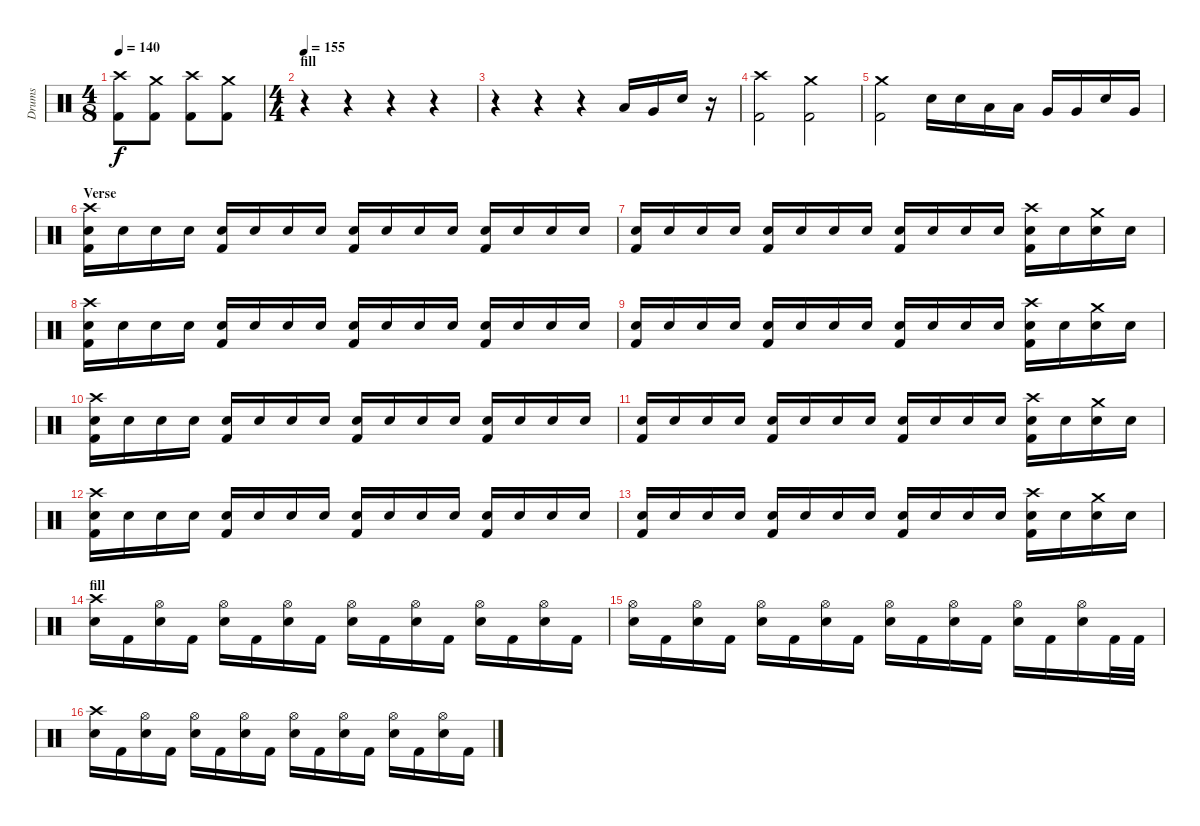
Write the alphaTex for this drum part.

\track ("Drums" "Drums") {instrument percussion}
\staff {score}
\articulation defaults
\ts (4 8)
\tempo 140
\clef neutral
\ks c
("Crash high (hit)" "Kick (hit) 2").8{dy f} ("Crash medium (hit)" "Kick (hit) 2").8 ("Crash high (hit)" "Kick (hit) 2").8 ("Crash medium (hit)" "Kick (hit) 2").8 |
\ts (4 4)
\section ("" "fill")
\tempo 155
r.4 r.4 r.4 r.4 |
r.4 r.4 r.4 "Low Tom (hit)".16 "Very Low Tom (hit)".16 "Snare (hit) 2".16 r.16 |
("Crash high (hit)" "Kick (hit) 2").2 ("Crash medium (hit)" "Kick (hit) 2").2 |
("Crash medium (hit)" "Kick (hit) 2").2 "Snare (hit) 2".16 "Snare (hit) 2".16 "Low Tom (hit)".16 "Low Tom (hit)".16 "Very Low Tom (hit)".16 "Very Low Tom (hit)".16 "Snare (hit) 2".16 "Very Low Tom (hit)".16 |
\section ("" "Verse")
("Crash high (hit)" "Snare (hit) 2" "Kick (hit) 2").16 "Snare (hit) 2".16 "Snare (hit) 2".16 "Snare (hit) 2".16 ("Snare (hit) 2" "Kick (hit) 2").16 "Snare (hit) 2".16 "Snare (hit) 2".16 "Snare (hit) 2".16 ("Snare (hit) 2" "Kick (hit) 2").16 "Snare (hit) 2".16 "Snare (hit) 2".16 "Snare (hit) 2".16 ("Snare (hit) 2" "Kick (hit) 2").16 "Snare (hit) 2".16 "Snare (hit) 2".16 "Snare (hit) 2".16 |
("Snare (hit) 2" "Kick (hit) 2").16 "Snare (hit) 2".16 "Snare (hit) 2".16 "Snare (hit) 2".16 ("Snare (hit) 2" "Kick (hit) 2").16 "Snare (hit) 2".16 "Snare (hit) 2".16 "Snare (hit) 2".16 ("Snare (hit) 2" "Kick (hit) 2").16 "Snare (hit) 2".16 "Snare (hit) 2".16 "Snare (hit) 2".16 ("Crash high (hit)" "Snare (hit) 2" "Kick (hit) 2").16 "Snare (hit) 2".16 ("Crash medium (hit)" "Snare (hit) 2").16 "Snare (hit) 2".16 |
("Crash high (hit)" "Snare (hit) 2" "Kick (hit) 2").16 "Snare (hit) 2".16 "Snare (hit) 2".16 "Snare (hit) 2".16 ("Snare (hit) 2" "Kick (hit) 2").16 "Snare (hit) 2".16 "Snare (hit) 2".16 "Snare (hit) 2".16 ("Snare (hit) 2" "Kick (hit) 2").16 "Snare (hit) 2".16 "Snare (hit) 2".16 "Snare (hit) 2".16 ("Snare (hit) 2" "Kick (hit) 2").16 "Snare (hit) 2".16 "Snare (hit) 2".16 "Snare (hit) 2".16 |
("Snare (hit) 2" "Kick (hit) 2").16 "Snare (hit) 2".16 "Snare (hit) 2".16 "Snare (hit) 2".16 ("Snare (hit) 2" "Kick (hit) 2").16 "Snare (hit) 2".16 "Snare (hit) 2".16 "Snare (hit) 2".16 ("Snare (hit) 2" "Kick (hit) 2").16 "Snare (hit) 2".16 "Snare (hit) 2".16 "Snare (hit) 2".16 ("Crash high (hit)" "Snare (hit) 2" "Kick (hit) 2").16 "Snare (hit) 2".16 ("Crash medium (hit)" "Snare (hit) 2").16 "Snare (hit) 2".16 |
("Crash high (hit)" "Snare (hit) 2" "Kick (hit) 2").16 "Snare (hit) 2".16 "Snare (hit) 2".16 "Snare (hit) 2".16 ("Snare (hit) 2" "Kick (hit) 2").16 "Snare (hit) 2".16 "Snare (hit) 2".16 "Snare (hit) 2".16 ("Snare (hit) 2" "Kick (hit) 2").16 "Snare (hit) 2".16 "Snare (hit) 2".16 "Snare (hit) 2".16 ("Snare (hit) 2" "Kick (hit) 2").16 "Snare (hit) 2".16 "Snare (hit) 2".16 "Snare (hit) 2".16 |
("Snare (hit) 2" "Kick (hit) 2").16 "Snare (hit) 2".16 "Snare (hit) 2".16 "Snare (hit) 2".16 ("Snare (hit) 2" "Kick (hit) 2").16 "Snare (hit) 2".16 "Snare (hit) 2".16 "Snare (hit) 2".16 ("Snare (hit) 2" "Kick (hit) 2").16 "Snare (hit) 2".16 "Snare (hit) 2".16 "Snare (hit) 2".16 ("Crash high (hit)" "Snare (hit) 2" "Kick (hit) 2").16 "Snare (hit) 2".16 ("Crash medium (hit)" "Snare (hit) 2").16 "Snare (hit) 2".16 |
("Crash high (hit)" "Snare (hit) 2" "Kick (hit) 2").16 "Snare (hit) 2".16 "Snare (hit) 2".16 "Snare (hit) 2".16 ("Snare (hit) 2" "Kick (hit) 2").16 "Snare (hit) 2".16 "Snare (hit) 2".16 "Snare (hit) 2".16 ("Snare (hit) 2" "Kick (hit) 2").16 "Snare (hit) 2".16 "Snare (hit) 2".16 "Snare (hit) 2".16 ("Snare (hit) 2" "Kick (hit) 2").16 "Snare (hit) 2".16 "Snare (hit) 2".16 "Snare (hit) 2".16 |
("Snare (hit) 2" "Kick (hit) 2").16 "Snare (hit) 2".16 "Snare (hit) 2".16 "Snare (hit) 2".16 ("Snare (hit) 2" "Kick (hit) 2").16 "Snare (hit) 2".16 "Snare (hit) 2".16 "Snare (hit) 2".16 ("Snare (hit) 2" "Kick (hit) 2").16 "Snare (hit) 2".16 "Snare (hit) 2".16 "Snare (hit) 2".16 ("Crash high (hit)" "Snare (hit) 2" "Kick (hit) 2").16 "Snare (hit) 2".16 ("Crash medium (hit)" "Snare (hit) 2").16 "Snare (hit) 2".16 |
\section ("" "fill")
("Crash high (hit)" "Snare (hit) 2").16 "Kick (hit) 2".16 ("Hi-Hat (open)" "Snare (hit) 2").16 "Kick (hit) 2".16 ("Hi-Hat (open)" "Snare (hit) 2").16 "Kick (hit) 2".16 ("Hi-Hat (open)" "Snare (hit) 2").16 "Kick (hit) 2".16 ("Hi-Hat (open)" "Snare (hit) 2").16 "Kick (hit) 2".16 ("Hi-Hat (open)" "Snare (hit) 2").16 "Kick (hit) 2".16 ("Hi-Hat (open)" "Snare (hit) 2").16 "Kick (hit) 2".16 ("Hi-Hat (open)" "Snare (hit) 2").16 "Kick (hit) 2".16 |
("Hi-Hat (open)" "Snare (hit) 2").16 "Kick (hit) 2".16 ("Hi-Hat (open)" "Snare (hit) 2").16 "Kick (hit) 2".16 ("Hi-Hat (open)" "Snare (hit) 2").16 "Kick (hit) 2".16 ("Hi-Hat (open)" "Snare (hit) 2").16 "Kick (hit) 2".16 ("Hi-Hat (open)" "Snare (hit) 2").16 "Kick (hit) 2".16 ("Hi-Hat (open)" "Snare (hit) 2").16 "Kick (hit) 2".16 ("Hi-Hat (open)" "Snare (hit) 2").16 "Kick (hit) 2".16 ("Hi-Hat (open)" "Snare (hit) 2").16 "Kick (hit) 2".32 "Kick (hit) 2".32 |
("Crash high (hit)" "Snare (hit) 2").16 "Kick (hit) 2".16 ("Hi-Hat (open)" "Snare (hit) 2").16 "Kick (hit) 2".16 ("Hi-Hat (open)" "Snare (hit) 2").16 "Kick (hit) 2".16 ("Hi-Hat (open)" "Snare (hit) 2").16 "Kick (hit) 2".16 ("Hi-Hat (open)" "Snare (hit) 2").16 "Kick (hit) 2".16 ("Hi-Hat (open)" "Snare (hit) 2").16 "Kick (hit) 2".16 ("Hi-Hat (open)" "Snare (hit) 2").16 "Kick (hit) 2".16 ("Hi-Hat (open)" "Snare (hit) 2").16 "Kick (hit) 2".16
